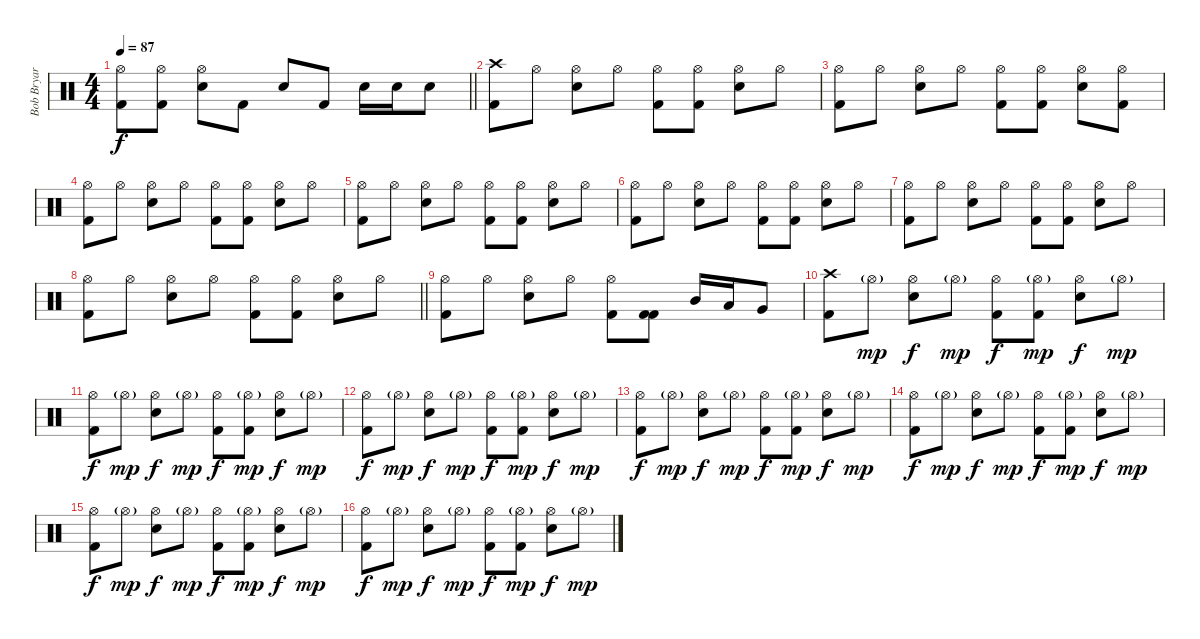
\track ("Bob Bryar [Drums]" "Bob Bryar ") {instrument percussion}
\staff {score}
\articulation defaults
\ts (4 4)
\tempo 87
\clef neutral
\barLineRight lightlight
\ks c
("Hi-Hat (open)" "Kick (hit) 2").8{dy f} ("Hi-Hat (open)" "Kick (hit) 2").8 ("Hi-Hat (open)" "Electric Snare (hit)").8 "Kick (hit) 2".8 "Electric Snare (hit)".8 "Kick (hit) 2".8 "Electric Snare (hit)".16 "Electric Snare (hit)".16 "Electric Snare (hit)".8 |
("Crash high (hit)" "Kick (hit) 2").8 "Hi-Hat (open)".8 ("Hi-Hat (open)" "Electric Snare (hit)").8 "Hi-Hat (open)".8 ("Hi-Hat (open)" "Kick (hit) 2").8 ("Hi-Hat (open)" "Kick (hit) 2").8 ("Hi-Hat (open)" "Electric Snare (hit)").8 "Hi-Hat (open)".8 |
("Hi-Hat (open)" "Kick (hit) 2").8 "Hi-Hat (open)".8 ("Hi-Hat (open)" "Electric Snare (hit)").8 "Hi-Hat (open)".8 ("Hi-Hat (open)" "Kick (hit) 2").8 ("Hi-Hat (open)" "Kick (hit) 2").8 ("Hi-Hat (open)" "Electric Snare (hit)").8 ("Hi-Hat (open)" "Kick (hit) 2").8 |
("Hi-Hat (open)" "Kick (hit) 2").8 "Hi-Hat (open)".8 ("Hi-Hat (open)" "Electric Snare (hit)").8 "Hi-Hat (open)".8 ("Hi-Hat (open)" "Kick (hit) 2").8 ("Hi-Hat (open)" "Kick (hit) 2").8 ("Hi-Hat (open)" "Electric Snare (hit)").8 "Hi-Hat (open)".8 |
("Hi-Hat (open)" "Kick (hit) 2").8 "Hi-Hat (open)".8 ("Hi-Hat (open)" "Electric Snare (hit)").8 "Hi-Hat (open)".8 ("Hi-Hat (open)" "Kick (hit) 2").8 ("Hi-Hat (open)" "Kick (hit) 2").8 ("Hi-Hat (open)" "Electric Snare (hit)").8 "Hi-Hat (open)".8 |
("Hi-Hat (open)" "Kick (hit) 2").8 "Hi-Hat (open)".8 ("Hi-Hat (open)" "Electric Snare (hit)").8 "Hi-Hat (open)".8 ("Hi-Hat (open)" "Kick (hit) 2").8 ("Hi-Hat (open)" "Kick (hit) 2").8 ("Hi-Hat (open)" "Electric Snare (hit)").8 "Hi-Hat (open)".8 |
("Hi-Hat (open)" "Kick (hit) 2").8 "Hi-Hat (open)".8 ("Hi-Hat (open)" "Electric Snare (hit)").8 "Hi-Hat (open)".8 ("Hi-Hat (open)" "Kick (hit) 2").8 ("Hi-Hat (open)" "Kick (hit) 2").8 ("Hi-Hat (open)" "Electric Snare (hit)").8 "Hi-Hat (open)".8 |
\barLineRight lightlight
("Hi-Hat (open)" "Kick (hit) 2").8 "Hi-Hat (open)".8 ("Hi-Hat (open)" "Electric Snare (hit)").8 "Hi-Hat (open)".8 ("Hi-Hat (open)" "Kick (hit) 2").8 ("Hi-Hat (open)" "Kick (hit) 2").8 ("Hi-Hat (open)" "Electric Snare (hit)").8 "Hi-Hat (open)".8 |
("Hi-Hat (open)" "Kick (hit) 2").8 "Hi-Hat (open)".8 ("Hi-Hat (open)" "Electric Snare (hit)").8 "Hi-Hat (open)".8 ("Hi-Hat (open)" "Kick (hit) 2").8 ("Kick (hit) 2" "Kick (hit) 2").8 "Mid Tom (hit)".16 "Low Tom (hit)".16 "Very Low Tom (hit)".8 |
("Crash high (hit)" "Kick (hit) 2").8 "Hi-Hat (open)"{g}.8{dy mp} ("Hi-Hat (open)" "Electric Snare (hit)").8{dy f} "Hi-Hat (open)"{g}.8{dy mp} ("Hi-Hat (open)" "Kick (hit) 2").8{dy f} ("Hi-Hat (open)"{g} "Kick (hit) 2").8{dy mp} ("Hi-Hat (open)" "Electric Snare (hit)").8{dy f} "Hi-Hat (open)"{g}.8{dy mp} |
("Hi-Hat (open)" "Kick (hit) 2").8{dy f} "Hi-Hat (open)"{g}.8{dy mp} ("Hi-Hat (open)" "Electric Snare (hit)").8{dy f} "Hi-Hat (open)"{g}.8{dy mp} ("Hi-Hat (open)" "Kick (hit) 2").8{dy f} ("Hi-Hat (open)"{g} "Kick (hit) 2").8{dy mp} ("Hi-Hat (open)" "Electric Snare (hit)").8{dy f} "Hi-Hat (open)"{g}.8{dy mp} |
("Hi-Hat (open)" "Kick (hit) 2").8{dy f} "Hi-Hat (open)"{g}.8{dy mp} ("Hi-Hat (open)" "Electric Snare (hit)").8{dy f} "Hi-Hat (open)"{g}.8{dy mp} ("Hi-Hat (open)" "Kick (hit) 2").8{dy f} ("Hi-Hat (open)"{g} "Kick (hit) 2").8{dy mp} ("Hi-Hat (open)" "Electric Snare (hit)").8{dy f} "Hi-Hat (open)"{g}.8{dy mp} |
("Hi-Hat (open)" "Kick (hit) 2").8{dy f} "Hi-Hat (open)"{g}.8{dy mp} ("Hi-Hat (open)" "Electric Snare (hit)").8{dy f} "Hi-Hat (open)"{g}.8{dy mp} ("Hi-Hat (open)" "Kick (hit) 2").8{dy f} ("Hi-Hat (open)"{g} "Kick (hit) 2").8{dy mp} ("Hi-Hat (open)" "Electric Snare (hit)").8{dy f} "Hi-Hat (open)"{g}.8{dy mp} |
("Hi-Hat (open)" "Kick (hit) 2").8{dy f} "Hi-Hat (open)"{g}.8{dy mp} ("Hi-Hat (open)" "Electric Snare (hit)").8{dy f} "Hi-Hat (open)"{g}.8{dy mp} ("Hi-Hat (open)" "Kick (hit) 2").8{dy f} ("Hi-Hat (open)"{g} "Kick (hit) 2").8{dy mp} ("Hi-Hat (open)" "Electric Snare (hit)").8{dy f} "Hi-Hat (open)"{g}.8{dy mp} |
("Hi-Hat (open)" "Kick (hit) 2").8{dy f} "Hi-Hat (open)"{g}.8{dy mp} ("Hi-Hat (open)" "Electric Snare (hit)").8{dy f} "Hi-Hat (open)"{g}.8{dy mp} ("Hi-Hat (open)" "Kick (hit) 2").8{dy f} ("Hi-Hat (open)"{g} "Kick (hit) 2").8{dy mp} ("Hi-Hat (open)" "Electric Snare (hit)").8{dy f} "Hi-Hat (open)"{g}.8{dy mp} |
("Hi-Hat (open)" "Kick (hit) 2").8{dy f} "Hi-Hat (open)"{g}.8{dy mp} ("Hi-Hat (open)" "Electric Snare (hit)").8{dy f} "Hi-Hat (open)"{g}.8{dy mp} ("Hi-Hat (open)" "Kick (hit) 2").8{dy f} ("Hi-Hat (open)"{g} "Kick (hit) 2").8{dy mp} ("Hi-Hat (open)" "Electric Snare (hit)").8{dy f} "Hi-Hat (open)"{g}.8{dy mp}
